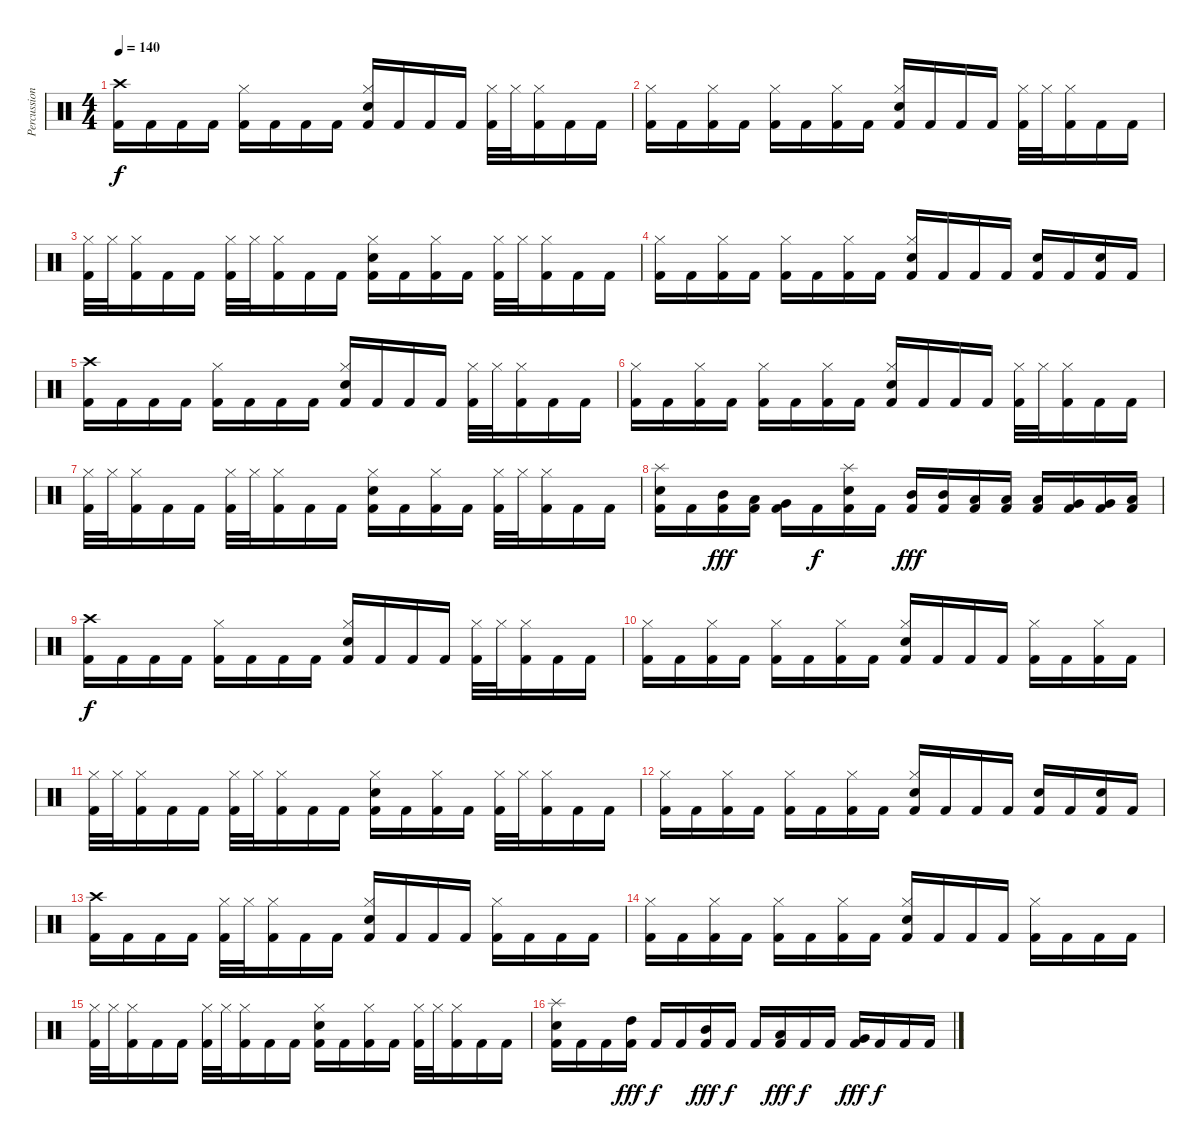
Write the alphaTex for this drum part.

\track ("Percussion" "Percussion") {instrument percussion}
\staff {score}
\articulation defaults
\ts (4 4)
\tempo 140
\clef neutral
\ks c
("Crash high (hit)" "Kick (hit) 2").16{dy f} "Kick (hit) 2".16 "Kick (hit) 2".16 "Kick (hit) 2".16 ("Hi-Hat (closed)" "Kick (hit) 2").16 "Kick (hit) 2".16 "Kick (hit) 2".16 "Kick (hit) 2".16 ("Hi-Hat (closed)" "Snare (hit) 2" "Kick (hit) 2").16 "Kick (hit) 2".16 "Kick (hit) 2".16 "Kick (hit) 2".16 ("Hi-Hat (closed)" "Kick (hit) 2").32 "Hi-Hat (closed)".32 ("Hi-Hat (closed)" "Kick (hit) 2").16 "Kick (hit) 2".16 "Kick (hit) 2".16 |
("Hi-Hat (closed)" "Kick (hit) 2").16 "Kick (hit) 2".16 ("Hi-Hat (closed)" "Kick (hit) 2").16 "Kick (hit) 2".16 ("Hi-Hat (closed)" "Kick (hit) 2").16 "Kick (hit) 2".16 ("Hi-Hat (closed)" "Kick (hit) 2").16 "Kick (hit) 2".16 ("Hi-Hat (closed)" "Snare (hit) 2" "Kick (hit) 2").16 "Kick (hit) 2".16 "Kick (hit) 2".16 "Kick (hit) 2".16 ("Hi-Hat (closed)" "Kick (hit) 2").32 "Hi-Hat (closed)".32 ("Hi-Hat (closed)" "Kick (hit) 2").16 "Kick (hit) 2".16 "Kick (hit) 2".16 |
("Hi-Hat (closed)" "Kick (hit) 2").32 "Hi-Hat (closed)".32 ("Hi-Hat (closed)" "Kick (hit) 2").16 "Kick (hit) 2".16 "Kick (hit) 2".16 ("Hi-Hat (closed)" "Kick (hit) 2").32 "Hi-Hat (closed)".32 ("Hi-Hat (closed)" "Kick (hit) 2").16 "Kick (hit) 2".16 "Kick (hit) 2".16 ("Hi-Hat (closed)" "Snare (hit) 2" "Kick (hit) 2").16 "Kick (hit) 2".16 ("Hi-Hat (closed)" "Kick (hit) 2").16 "Kick (hit) 2".16 ("Hi-Hat (closed)" "Kick (hit) 2").32 "Hi-Hat (closed)".32 ("Hi-Hat (closed)" "Kick (hit) 2").16 "Kick (hit) 2".16 "Kick (hit) 2".16 |
("Hi-Hat (closed)" "Kick (hit) 2").16 "Kick (hit) 2".16 ("Hi-Hat (closed)" "Kick (hit) 2").16 "Kick (hit) 2".16 ("Hi-Hat (closed)" "Kick (hit) 2").16 "Kick (hit) 2".16 ("Hi-Hat (closed)" "Kick (hit) 2").16 "Kick (hit) 2".16 ("Hi-Hat (closed)" "Snare (hit) 2" "Kick (hit) 2").16 "Kick (hit) 2".16 "Kick (hit) 2".16 "Kick (hit) 2".16 ("Snare (hit) 2" "Kick (hit) 2").16 "Kick (hit) 2".16 ("Snare (hit) 2" "Kick (hit) 2").16 "Kick (hit) 2".16 |
("Crash high (hit)" "Kick (hit) 2").16 "Kick (hit) 2".16 "Kick (hit) 2".16 "Kick (hit) 2".16 ("Hi-Hat (closed)" "Kick (hit) 2").16 "Kick (hit) 2".16 "Kick (hit) 2".16 "Kick (hit) 2".16 ("Hi-Hat (closed)" "Snare (hit) 2" "Kick (hit) 2").16 "Kick (hit) 2".16 "Kick (hit) 2".16 "Kick (hit) 2".16 ("Hi-Hat (closed)" "Kick (hit) 2").32 "Hi-Hat (closed)".32 ("Hi-Hat (closed)" "Kick (hit) 2").16 "Kick (hit) 2".16 "Kick (hit) 2".16 |
("Hi-Hat (closed)" "Kick (hit) 2").16 "Kick (hit) 2".16 ("Hi-Hat (closed)" "Kick (hit) 2").16 "Kick (hit) 2".16 ("Hi-Hat (closed)" "Kick (hit) 2").16 "Kick (hit) 2".16 ("Hi-Hat (closed)" "Kick (hit) 2").16 "Kick (hit) 2".16 ("Hi-Hat (closed)" "Snare (hit) 2" "Kick (hit) 2").16 "Kick (hit) 2".16 "Kick (hit) 2".16 "Kick (hit) 2".16 ("Hi-Hat (closed)" "Kick (hit) 2").32 "Hi-Hat (closed)".32 ("Hi-Hat (closed)" "Kick (hit) 2").16 "Kick (hit) 2".16 "Kick (hit) 2".16 |
("Hi-Hat (closed)" "Kick (hit) 2").32 "Hi-Hat (closed)".32 ("Hi-Hat (closed)" "Kick (hit) 2").16 "Kick (hit) 2".16 "Kick (hit) 2".16 ("Hi-Hat (closed)" "Kick (hit) 2").32 "Hi-Hat (closed)".32 ("Hi-Hat (closed)" "Kick (hit) 2").16 "Kick (hit) 2".16 "Kick (hit) 2".16 ("Hi-Hat (closed)" "Snare (hit) 2" "Kick (hit) 2").16 "Kick (hit) 2".16 ("Hi-Hat (closed)" "Kick (hit) 2").16 "Kick (hit) 2".16 ("Hi-Hat (closed)" "Kick (hit) 2").32 "Hi-Hat (closed)".32 ("Hi-Hat (closed)" "Kick (hit) 2").16 "Kick (hit) 2".16 "Kick (hit) 2".16 |
("Splash (hit)" "Snare (hit) 2" "Kick (hit) 2").16 "Kick (hit) 2".16 ("Mid Tom (hit)" "Kick (hit) 2").16{dy fff} ("Low Tom (hit)" "Kick (hit) 2").16 ("Very Low Tom (hit)" "Kick (hit) 2").16 "Kick (hit) 2".16{dy f} ("Splash (hit)" "Snare (hit) 2" "Kick (hit) 2").16 "Kick (hit) 2".16 ("Mid Tom (hit)" "Kick (hit) 2").16{dy fff} ("Mid Tom (hit)" "Kick (hit) 2").16 ("Low Tom (hit)" "Kick (hit) 2").16 ("Low Tom (hit)" "Kick (hit) 2").16 ("Low Tom (hit)" "Kick (hit) 2").16 ("Very Low Tom (hit)" "Kick (hit) 2").16 ("Very Low Tom (hit)" "Kick (hit) 2").16 ("Low Floor Tom (hit)" "Kick (hit) 2").16 |
("Crash high (hit)" "Kick (hit) 2").16{dy f} "Kick (hit) 2".16 "Kick (hit) 2".16 "Kick (hit) 2".16 ("Hi-Hat (closed)" "Kick (hit) 2").16 "Kick (hit) 2".16 "Kick (hit) 2".16 "Kick (hit) 2".16 ("Hi-Hat (closed)" "Snare (hit) 2" "Kick (hit) 2").16 "Kick (hit) 2".16 "Kick (hit) 2".16 "Kick (hit) 2".16 ("Hi-Hat (closed)" "Kick (hit) 2").32 "Hi-Hat (closed)".32 ("Hi-Hat (closed)" "Kick (hit) 2").16 "Kick (hit) 2".16 "Kick (hit) 2".16 |
("Hi-Hat (closed)" "Kick (hit) 2").16 "Kick (hit) 2".16 ("Hi-Hat (closed)" "Kick (hit) 2").16 "Kick (hit) 2".16 ("Hi-Hat (closed)" "Kick (hit) 2").16 "Kick (hit) 2".16 ("Hi-Hat (closed)" "Kick (hit) 2").16 "Kick (hit) 2".16 ("Hi-Hat (closed)" "Snare (hit) 2" "Kick (hit) 2").16 "Kick (hit) 2".16 "Kick (hit) 2".16 "Kick (hit) 2".16 ("Hi-Hat (closed)" "Kick (hit) 2").16 "Kick (hit) 2".16 ("Hi-Hat (closed)" "Kick (hit) 2").16 "Kick (hit) 2".16 |
("Hi-Hat (closed)" "Kick (hit) 2").32 "Hi-Hat (closed)".32 ("Hi-Hat (closed)" "Kick (hit) 2").16 "Kick (hit) 2".16 "Kick (hit) 2".16 ("Hi-Hat (closed)" "Kick (hit) 2").32 "Hi-Hat (closed)".32 ("Hi-Hat (closed)" "Kick (hit) 2").16 "Kick (hit) 2".16 "Kick (hit) 2".16 ("Hi-Hat (closed)" "Snare (hit) 2" "Kick (hit) 2").16 "Kick (hit) 2".16 ("Hi-Hat (closed)" "Kick (hit) 2").16 "Kick (hit) 2".16 ("Hi-Hat (closed)" "Kick (hit) 2").32 "Hi-Hat (closed)".32 ("Hi-Hat (closed)" "Kick (hit) 2").16 "Kick (hit) 2".16 "Kick (hit) 2".16 |
("Hi-Hat (closed)" "Kick (hit) 2").16 "Kick (hit) 2".16 ("Hi-Hat (closed)" "Kick (hit) 2").16 "Kick (hit) 2".16 ("Hi-Hat (closed)" "Kick (hit) 2").16 "Kick (hit) 2".16 ("Hi-Hat (closed)" "Kick (hit) 2").16 "Kick (hit) 2".16 ("Hi-Hat (closed)" "Snare (hit) 2" "Kick (hit) 2").16 "Kick (hit) 2".16 "Kick (hit) 2".16 "Kick (hit) 2".16 ("Snare (hit) 2" "Kick (hit) 2").16 "Kick (hit) 2".16 ("Snare (hit) 2" "Kick (hit) 2").16 "Kick (hit) 2".16 |
("Crash high (hit)" "Kick (hit) 2").16 "Kick (hit) 2".16 "Kick (hit) 2".16 "Kick (hit) 2".16 ("Hi-Hat (closed)" "Kick (hit) 2").32 "Hi-Hat (closed)".32 ("Hi-Hat (closed)" "Kick (hit) 2").16 "Kick (hit) 2".16 "Kick (hit) 2".16 ("Hi-Hat (closed)" "Snare (hit) 2" "Kick (hit) 2").16 "Kick (hit) 2".16 "Kick (hit) 2".16 "Kick (hit) 2".16 ("Hi-Hat (closed)" "Kick (hit) 2").16 "Kick (hit) 2".16 "Kick (hit) 2".16 "Kick (hit) 2".16 |
("Hi-Hat (closed)" "Kick (hit) 2").16 "Kick (hit) 2".16 ("Hi-Hat (closed)" "Kick (hit) 2").16 "Kick (hit) 2".16 ("Hi-Hat (closed)" "Kick (hit) 2").16 "Kick (hit) 2".16 ("Hi-Hat (closed)" "Kick (hit) 2").16 "Kick (hit) 2".16 ("Hi-Hat (closed)" "Snare (hit) 2" "Kick (hit) 2").16 "Kick (hit) 2".16 "Kick (hit) 2".16 "Kick (hit) 2".16 ("Hi-Hat (closed)" "Kick (hit) 2").16 "Kick (hit) 2".16 "Kick (hit) 2".16 "Kick (hit) 2".16 |
("Hi-Hat (closed)" "Kick (hit) 2").32 "Hi-Hat (closed)".32 ("Hi-Hat (closed)" "Kick (hit) 2").16 "Kick (hit) 2".16 "Kick (hit) 2".16 ("Hi-Hat (closed)" "Kick (hit) 2").32 "Hi-Hat (closed)".32 ("Hi-Hat (closed)" "Kick (hit) 2").16 "Kick (hit) 2".16 "Kick (hit) 2".16 ("Hi-Hat (closed)" "Snare (hit) 2" "Kick (hit) 2").16 "Kick (hit) 2".16 ("Hi-Hat (closed)" "Kick (hit) 2").16 "Kick (hit) 2".16 ("Hi-Hat (closed)" "Kick (hit) 2").32 "Hi-Hat (closed)".32 ("Hi-Hat (closed)" "Kick (hit) 2").16 "Kick (hit) 2".16 "Kick (hit) 2".16 |
("Splash (hit)" "Snare (hit) 2" "Kick (hit) 2").16 "Kick (hit) 2".16 "Kick (hit) 2".16 ("High Tom (hit)" "Kick (hit) 2").16{dy fff} "Kick (hit) 2".16{dy f} "Kick (hit) 2".16 ("Mid Tom (hit)" "Kick (hit) 2").16{dy fff} "Kick (hit) 2".16{dy f} "Kick (hit) 2".16 ("Low Tom (hit)" "Kick (hit) 2").16{dy fff} "Kick (hit) 2".16{dy f} "Kick (hit) 2".16 ("Very Low Tom (hit)" "Kick (hit) 2").16{dy fff} "Kick (hit) 2".16{dy f} "Kick (hit) 2".16 "Kick (hit) 2".16
